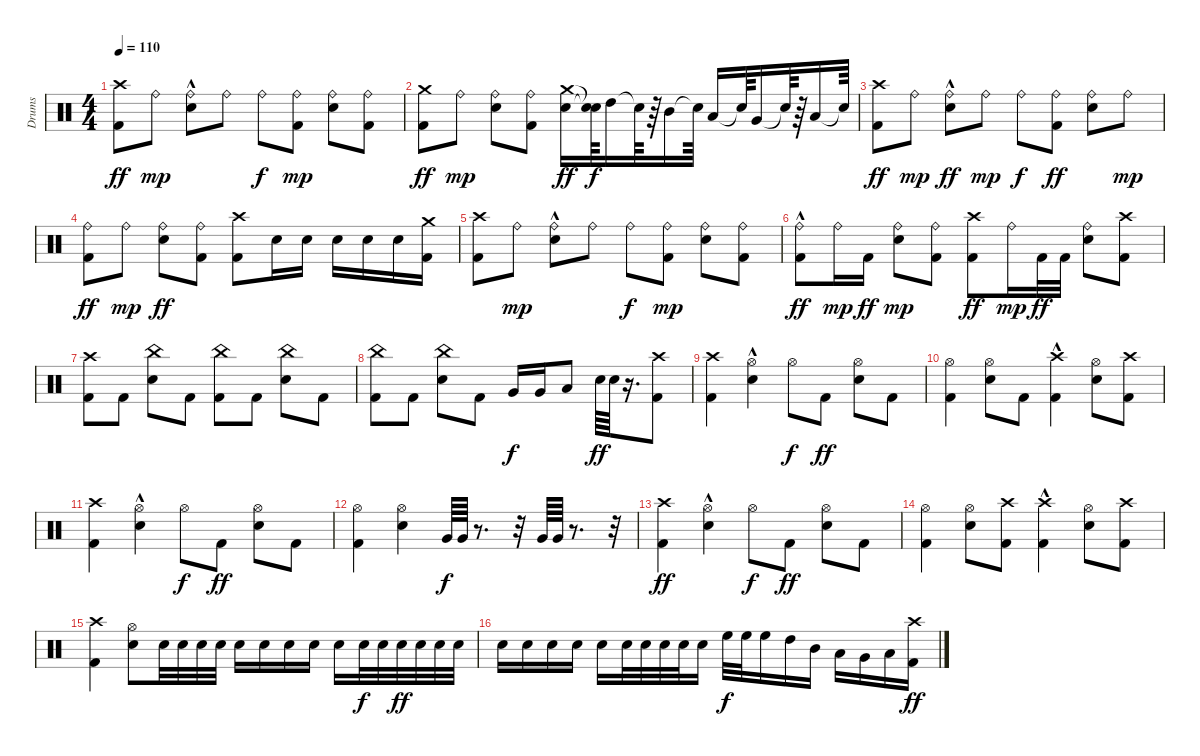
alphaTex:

\track ("Drums" "Drums") {instrument percussion}
\staff {score}
\articulation defaults
\ts (4 4)
\tempo 110
\clef neutral
\ks c
("Crash high (hit)" "Kick (hit) 2").8{dy ff} "Ride (bell)".8{dy mp} ("Electric Snare (hit)"{hac} "Ride (bell)").8 "Ride (bell)".8 "Ride (bell)".8{dy f} ("Kick (hit) 2" "Ride (bell)").8{dy mp} ("Electric Snare (hit)" "Ride (bell)").8 ("Kick (hit) 2" "Ride (bell)").8 |
("Crash medium (hit)" "Kick (hit) 2").8{dy ff} "Ride (bell)".8{dy mp} ("Electric Snare (hit)" "Ride (bell)").8 ("Kick (hit) 2" "Ride (bell)").8 ("Crash medium (hit)" "Electric Snare (hit)").16{dy ff} ("Snare (hit)"{t} "Snare (hit)"{t}).64{dy f} "High Tom (hit)".16 "Snare (hit)"{t}.64 r.64 "Mid Tom (hit)".16 "Snare (hit)"{t}.64 "Low Tom (hit)".16 "Snare (hit)"{t}.64 "Very Low Tom (hit)".16 "Snare (hit)"{t}.64 r.64 "Low Floor Tom (hit)".16 "Snare (hit)"{t}.64 |
("Crash high (hit)" "Kick (hit) 2").8{dy ff} "Ride (bell)".8{dy mp} ("Ride (bell)" "Electric Snare (hit)"{hac}).8{dy ff} "Ride (bell)".8{dy mp} "Ride (bell)".8{dy f} ("Ride (bell)" "Kick (hit) 2").8{dy ff} ("Ride (bell)" "Electric Snare (hit)").8 "Ride (bell)".8{dy mp} |
("Ride (bell)" "Kick (hit) 2").8{dy ff} "Ride (bell)".8{dy mp} ("Ride (bell)" "Electric Snare (hit)").8{dy ff} ("Ride (bell)" "Kick (hit) 2").8 ("Crash high (hit)" "Kick (hit) 2").8 "Electric Snare (hit)".16 "Electric Snare (hit)".16 "Electric Snare (hit)".16 "Electric Snare (hit)".16 "Electric Snare (hit)".16 ("Crash medium (hit)" "Kick (hit) 2").16 |
("Crash high (hit)" "Kick (hit) 2").8 "Ride (bell)".8{dy mp} ("Electric Snare (hit)"{hac} "Ride (bell)").8 "Ride (bell)".8 "Ride (bell)".8{dy f} ("Kick (hit) 2" "Ride (bell)").8{dy mp} ("Electric Snare (hit)" "Ride (bell)").8 ("Kick (hit) 2" "Ride (bell)").8 |
("Kick (hit) 2"{hac} "Ride (bell)").8{dy ff} "Ride (bell)".16{dy mp} "Kick (hit) 2".16{dy ff} ("Electric Snare (hit)" "Ride (bell)").8{dy mp} ("Kick (hit) 2" "Ride (bell)").8 ("Crash high (hit)" "Kick (hit) 2").8{dy ff} "Ride (bell)".16{dy mp} "Kick (hit) 2".32{dy ff} "Kick (hit) 2".32 ("Ride (bell)" "Electric Snare (hit)").8 ("Crash high (hit)" "Kick (hit) 2").8 |
("Crash high (hit)" "Kick (hit) 2").8 "Kick (hit) 2".8 ("China (hit)" "Electric Snare (hit)").8 "Kick (hit) 2".8 ("China (hit)" "Kick (hit) 2").8 "Kick (hit) 2".8 ("China (hit)" "Electric Snare (hit)").8 "Kick (hit) 2".8 |
("China (hit)" "Kick (hit) 2").8 "Kick (hit) 2".8 ("China (hit)" "Electric Snare (hit)").8 "Kick (hit) 2".8 "Very Low Tom (hit)".16{dy f} "Very Low Tom (hit)".16 "Low Floor Tom (hit)".8 "Electric Snare (hit)".64{dy ff} "Electric Snare (hit)".64 r.16{d} ("Crash high (hit)" "Kick (hit) 2").8 |
("Crash high (hit)" "Kick (hit) 2").4 ("Hi-Hat (open)" "Electric Snare (hit)"{hac}).4 "Hi-Hat (open)".8{dy f} "Kick (hit) 2".8{dy ff} ("Hi-Hat (open)" "Electric Snare (hit)").8 "Kick (hit) 2".8 |
("Hi-Hat (open)" "Kick (hit) 2").4 ("Hi-Hat (open)" "Electric Snare (hit)").8 "Kick (hit) 2".8 ("Crash high (hit)" "Kick (hit) 2"{hac}).4 ("Hi-Hat (open)" "Electric Snare (hit)").8 ("Crash high (hit)" "Kick (hit) 2").8 |
("Crash high (hit)" "Kick (hit) 2").4 ("Hi-Hat (open)" "Electric Snare (hit)"{hac}).4 "Hi-Hat (open)".8{dy f} "Kick (hit) 2".8{dy ff} ("Hi-Hat (open)" "Electric Snare (hit)").8 "Kick (hit) 2".8 |
("Hi-Hat (open)" "Kick (hit) 2").4 ("Hi-Hat (open)" "Electric Snare (hit)").4 "Very Low Tom (hit)".64{dy f} "Very Low Tom (hit)".64 r.8{d} r.32 "Very Low Tom (hit)".64 "Very Low Tom (hit)".64 r.8{d} r.32 |
("Crash high (hit)" "Kick (hit) 2").4{dy ff} ("Hi-Hat (open)" "Electric Snare (hit)"{hac}).4 "Hi-Hat (open)".8{dy f} "Kick (hit) 2".8{dy ff} ("Hi-Hat (open)" "Electric Snare (hit)").8 "Kick (hit) 2".8 |
("Hi-Hat (open)" "Kick (hit) 2").4 ("Hi-Hat (open)" "Electric Snare (hit)").8 ("Crash high (hit)" "Kick (hit) 2").8 ("Crash high (hit)" "Kick (hit) 2"{hac}).4 ("Hi-Hat (open)" "Electric Snare (hit)").8 ("Crash high (hit)" "Kick (hit) 2").8 |
("Crash high (hit)" "Kick (hit) 2").4 ("Hi-Hat (open)" "Electric Snare (hit)").8 "Electric Snare (hit)".32 "Electric Snare (hit)".32 "Electric Snare (hit)".32 "Electric Snare (hit)".32 "Electric Snare (hit)".16 "Electric Snare (hit)".16 "Electric Snare (hit)".16 "Electric Snare (hit)".16 "Electric Snare (hit)".16 "Electric Snare (hit)".32{dy f} "Electric Snare (hit)".32 "Electric Snare (hit)".32{dy ff} "Electric Snare (hit)".32 "Electric Snare (hit)".32 "Electric Snare (hit)".32 |
"Electric Snare (hit)".16 "Electric Snare (hit)".16 "Electric Snare (hit)".16 "Electric Snare (hit)".16 "Electric Snare (hit)".16 "Electric Snare (hit)".32 "Electric Snare (hit)".32 "Electric Snare (hit)".32 "Electric Snare (hit)".32 "Electric Snare (hit)".16 "High Floor Tom (hit)".32{dy f} "High Floor Tom (hit)".32 "High Floor Tom (hit)".16 "High Tom (hit)".16 "Mid Tom (hit)".16 "Low Tom (hit)".16 "Very Low Tom (hit)".16 "Low Floor Tom (hit)".16 ("Crash high (hit)" "Kick (hit) 2").16{dy ff}
